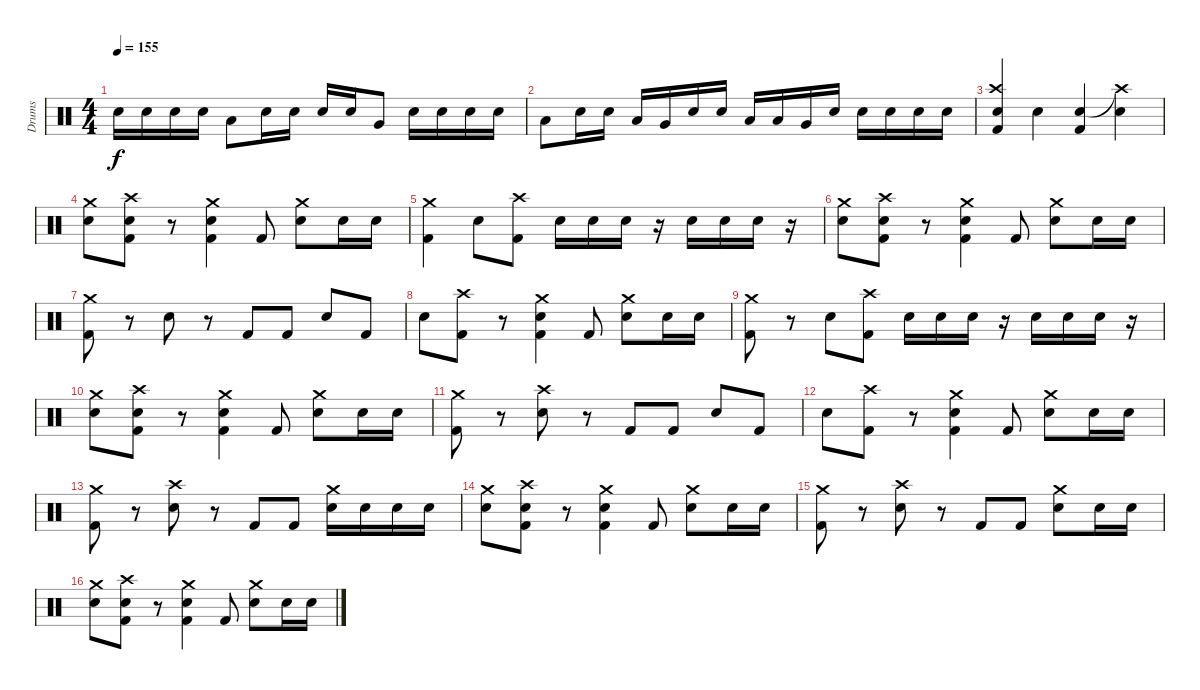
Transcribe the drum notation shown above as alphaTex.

\track ("Drums" "Drums") {instrument percussion}
\staff {score}
\articulation defaults
\ts (4 4)
\tempo 155
\clef neutral
\ks c "Snare (hit) 2".16{dy f volume 12} "Snare (hit) 2".16 "Snare (hit) 2".16 "Snare (hit) 2".16 "Low Tom (hit)".8 "Snare (hit) 2".16 "Snare (hit) 2".16 "Snare (hit) 2".16 "Snare (hit) 2".16 "Very Low Tom (hit)".8 "Snare (hit) 2".16 "Snare (hit) 2".16 "Snare (hit) 2".16 "Snare (hit) 2".16
|
"Low Floor Tom (hit)".8 "Snare (hit) 2".16 "Snare (hit) 2".16 "Low Tom (hit)".16 "Very Low Tom (hit)".16 "Snare (hit) 2".16 "Snare (hit) 2".16 "Low Tom (hit)".16 "Low Tom (hit)".16 "Very Low Tom (hit)".16 "Snare (hit) 2".16 "Snare (hit) 2".16 "Snare (hit) 2".16 "Snare (hit) 2".16 "Snare (hit) 2".16 |
("Crash high (hit)" "Snare (hit) 2" "Kick (hit) 2").4 "Snare (hit) 2".4 ("Snare (hit) 2" "Kick (hit) 2").4 ("Crash high (hit)"{t} "Snare (hit) 2").4 |
("Crash medium (hit)" "Snare (hit) 2").8 ("Crash high (hit)" "Snare (hit) 2" "Kick (hit) 2").8 r.8 ("Crash medium (hit)" "Snare (hit) 2" "Kick (hit) 2").4 "Kick (hit) 2".8 ("Crash medium (hit)" "Snare (hit) 2").8 "Snare (hit) 2".16 "Snare (hit) 2".16 |
("Crash medium (hit)" "Kick (hit) 2").4 "Snare (hit) 2".8 ("Crash high (hit)" "Kick (hit) 2").8 "Snare (hit) 2".16 "Snare (hit) 2".16 "Snare (hit) 2".16 r.16 "Snare (hit) 2".16 "Snare (hit) 2".16 "Snare (hit) 2".16 r.16 |
("Crash medium (hit)" "Snare (hit) 2").8 ("Crash high (hit)" "Snare (hit) 2" "Kick (hit) 2").8 r.8 ("Crash medium (hit)" "Snare (hit) 2" "Kick (hit) 2").4 "Kick (hit) 2".8 ("Crash medium (hit)" "Snare (hit) 2").8 "Snare (hit) 2".16 "Snare (hit) 2".16 |
("Crash medium (hit)" "Kick (hit) 2").8 r.8 "Snare (hit) 2".8 r.8 "Kick (hit) 2".8 "Kick (hit) 2".8 "Snare (hit) 2".8 "Kick (hit) 2".8 |
"Snare (hit) 2".8 ("Crash high (hit)" "Kick (hit) 2").8 r.8 ("Crash medium (hit)" "Snare (hit) 2" "Kick (hit) 2").4 "Kick (hit) 2".8 ("Crash medium (hit)" "Snare (hit) 2").8 "Snare (hit) 2".16 "Snare (hit) 2".16 |
("Crash medium (hit)" "Kick (hit) 2").8 r.8 "Snare (hit) 2".8 ("Crash high (hit)" "Kick (hit) 2").8 "Snare (hit) 2".16 "Snare (hit) 2".16 "Snare (hit) 2".16 r.16 "Snare (hit) 2".16 "Snare (hit) 2".16 "Snare (hit) 2".16 r.16 |
("Crash medium (hit)" "Snare (hit) 2").8 ("Crash high (hit)" "Snare (hit) 2" "Kick (hit) 2").8 r.8 ("Crash medium (hit)" "Snare (hit) 2" "Kick (hit) 2").4 "Kick (hit) 2".8 ("Crash medium (hit)" "Snare (hit) 2").8 "Snare (hit) 2".16 "Snare (hit) 2".16 |
("Crash medium (hit)" "Kick (hit) 2").8 r.8 ("Crash high (hit)" "Snare (hit) 2").8 r.8 "Kick (hit) 2".8 "Kick (hit) 2".8 "Snare (hit) 2".8 "Kick (hit) 2".8 |
"Snare (hit) 2".8 ("Crash high (hit)" "Kick (hit) 2").8 r.8 ("Crash medium (hit)" "Snare (hit) 2" "Kick (hit) 2").4 "Kick (hit) 2".8 ("Crash medium (hit)" "Snare (hit) 2").8 "Snare (hit) 2".16 "Snare (hit) 2".16 |
("Crash medium (hit)" "Kick (hit) 2").8 r.8 ("Crash high (hit)" "Snare (hit) 2").8 r.8 "Kick (hit) 2".8 "Kick (hit) 2".8 ("Crash medium (hit)" "Snare (hit) 2").16 "Snare (hit) 2".16 "Snare (hit) 2".16 "Snare (hit) 2".16 |
("Crash medium (hit)" "Snare (hit) 2").8 ("Crash high (hit)" "Snare (hit) 2" "Kick (hit) 2").8 r.8 ("Crash medium (hit)" "Snare (hit) 2" "Kick (hit) 2").4 "Kick (hit) 2".8 ("Crash medium (hit)" "Snare (hit) 2").8 "Snare (hit) 2".16 "Snare (hit) 2".16 |
("Crash medium (hit)" "Kick (hit) 2").8 r.8 ("Crash high (hit)" "Snare (hit) 2").8 r.8 "Kick (hit) 2".8 "Kick (hit) 2".8 ("Crash medium (hit)" "Snare (hit) 2").8 "Snare (hit) 2".16 "Snare (hit) 2".16 |
("Crash medium (hit)" "Snare (hit) 2").8 ("Crash high (hit)" "Snare (hit) 2" "Kick (hit) 2").8 r.8 ("Crash medium (hit)" "Snare (hit) 2" "Kick (hit) 2").4 "Kick (hit) 2".8 ("Crash medium (hit)" "Snare (hit) 2").8 "Snare (hit) 2".16 "Snare (hit) 2".16
